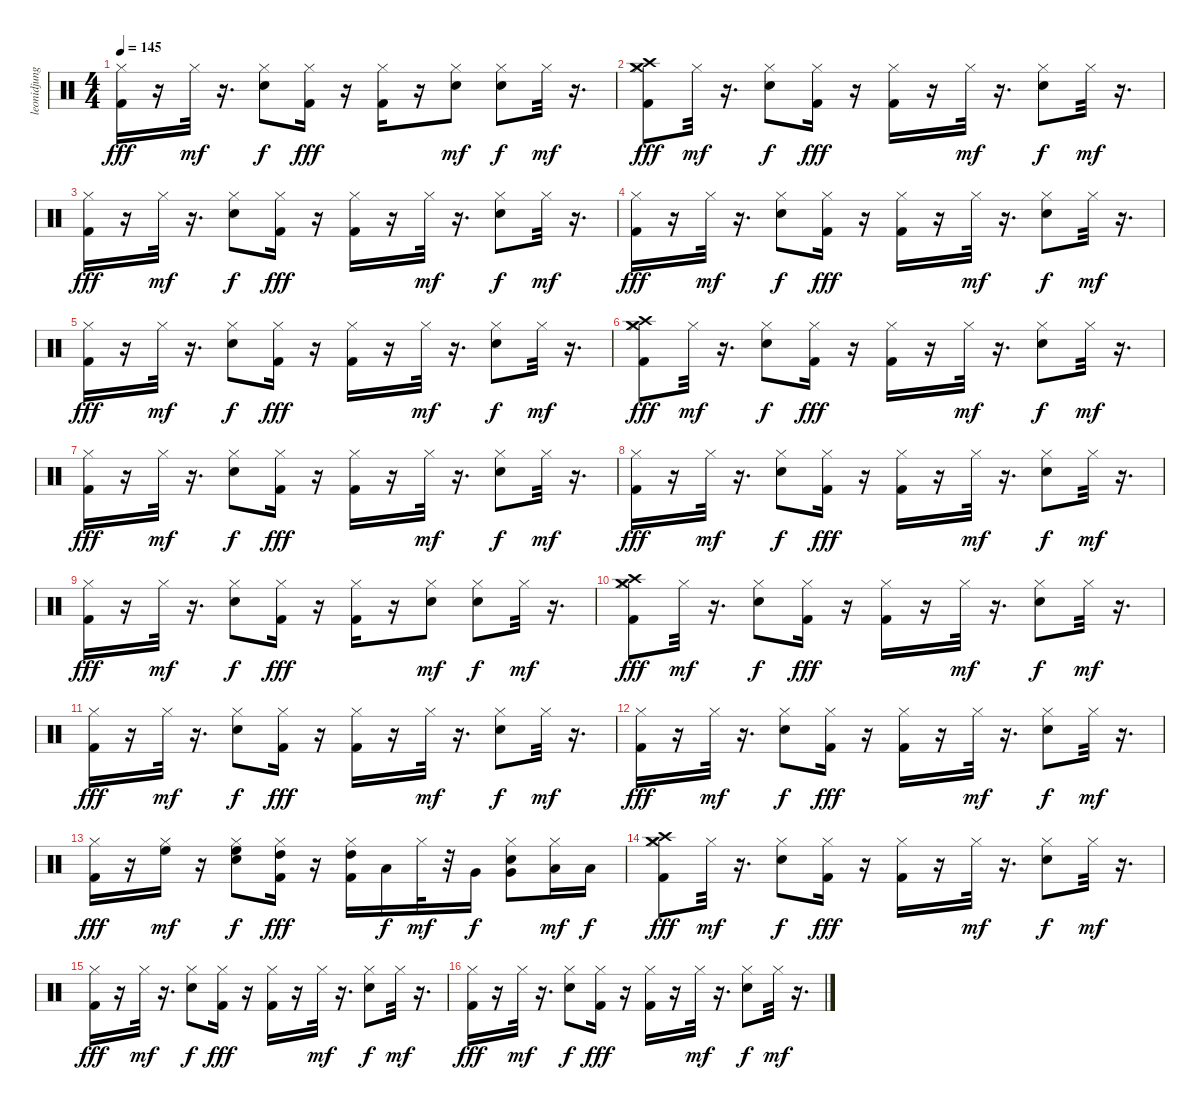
\track ("leonidjung@freenet.de" "leonidjung") {instrument percussion}
\staff {score}
\articulation defaults
\ts (4 4)
\tempo 145
\clef neutral
\ks c
("Hi-Hat (closed)" "Kick (hit) 2").16{dy fff} r.16 "Hi-Hat (closed)".32{dy mf} r.16{d} ("Snare (hit) 2" "Hi-Hat (closed)").8{dy f} ("Hi-Hat (closed)" "Kick (hit) 2").16{dy fff} r.16 ("Hi-Hat (closed)" "Kick (hit) 2").16 r.16 ("Snare (hit) 2" "Hi-Hat (closed)").8{dy mf} ("Snare (hit) 2" "Hi-Hat (closed)").8{dy f} "Hi-Hat (closed)".32{dy mf} r.16{d} |
("Hi-Hat (closed)" "Crash high (hit)" "Crash medium (hit)" "Kick (hit) 2").8{dy fff} "Hi-Hat (closed)".32{dy mf} r.16{d} ("Snare (hit) 2" "Hi-Hat (closed)").8{dy f} ("Hi-Hat (closed)" "Kick (hit) 2").16{dy fff} r.16 ("Hi-Hat (closed)" "Kick (hit) 2").16 r.16 "Hi-Hat (closed)".32{dy mf} r.16{d} ("Snare (hit) 2" "Hi-Hat (closed)").8{dy f} "Hi-Hat (closed)".32{dy mf} r.16{d} |
("Hi-Hat (closed)" "Kick (hit) 2").16{dy fff} r.16 "Hi-Hat (closed)".32{dy mf} r.16{d} ("Snare (hit) 2" "Hi-Hat (closed)").8{dy f} ("Hi-Hat (closed)" "Kick (hit) 2").16{dy fff} r.16 ("Hi-Hat (closed)" "Kick (hit) 2").16 r.16 "Hi-Hat (closed)".32{dy mf} r.16{d} ("Snare (hit) 2" "Hi-Hat (closed)").8{dy f} "Hi-Hat (closed)".32{dy mf} r.16{d} |
("Hi-Hat (closed)" "Kick (hit) 2").16{dy fff} r.16 "Hi-Hat (closed)".32{dy mf} r.16{d} ("Snare (hit) 2" "Hi-Hat (closed)").8{dy f} ("Hi-Hat (closed)" "Kick (hit) 2").16{dy fff} r.16 ("Hi-Hat (closed)" "Kick (hit) 2").16 r.16 "Hi-Hat (closed)".32{dy mf} r.16{d} ("Snare (hit) 2" "Hi-Hat (closed)").8{dy f} "Hi-Hat (closed)".32{dy mf} r.16{d} |
("Hi-Hat (closed)" "Kick (hit) 2").16{dy fff} r.16 "Hi-Hat (closed)".32{dy mf} r.16{d} ("Snare (hit) 2" "Hi-Hat (closed)").8{dy f} ("Hi-Hat (closed)" "Kick (hit) 2").16{dy fff} r.16 ("Hi-Hat (closed)" "Kick (hit) 2").16 r.16 "Hi-Hat (closed)".32{dy mf} r.16{d} ("Snare (hit) 2" "Hi-Hat (closed)").8{dy f} "Hi-Hat (closed)".32{dy mf} r.16{d} |
("Hi-Hat (closed)" "Crash high (hit)" "Crash medium (hit)" "Kick (hit) 2").8{dy fff} "Hi-Hat (closed)".32{dy mf} r.16{d} ("Snare (hit) 2" "Hi-Hat (closed)").8{dy f} ("Hi-Hat (closed)" "Kick (hit) 2").16{dy fff} r.16 ("Hi-Hat (closed)" "Kick (hit) 2").16 r.16 "Hi-Hat (closed)".32{dy mf} r.16{d} ("Snare (hit) 2" "Hi-Hat (closed)").8{dy f} "Hi-Hat (closed)".32{dy mf} r.16{d} |
("Hi-Hat (closed)" "Kick (hit) 2").16{dy fff} r.16 "Hi-Hat (closed)".32{dy mf} r.16{d} ("Snare (hit) 2" "Hi-Hat (closed)").8{dy f} ("Hi-Hat (closed)" "Kick (hit) 2").16{dy fff} r.16 ("Hi-Hat (closed)" "Kick (hit) 2").16 r.16 "Hi-Hat (closed)".32{dy mf} r.16{d} ("Snare (hit) 2" "Hi-Hat (closed)").8{dy f} "Hi-Hat (closed)".32{dy mf} r.16{d} |
("Hi-Hat (closed)" "Kick (hit) 2").16{dy fff} r.16 "Hi-Hat (closed)".32{dy mf} r.16{d} ("Snare (hit) 2" "Hi-Hat (closed)").8{dy f} ("Hi-Hat (closed)" "Kick (hit) 2").16{dy fff} r.16 ("Hi-Hat (closed)" "Kick (hit) 2").16 r.16 "Hi-Hat (closed)".32{dy mf} r.16{d} ("Snare (hit) 2" "Hi-Hat (closed)").8{dy f} "Hi-Hat (closed)".32{dy mf} r.16{d} |
("Hi-Hat (closed)" "Kick (hit) 2").16{dy fff} r.16 "Hi-Hat (closed)".32{dy mf} r.16{d} ("Snare (hit) 2" "Hi-Hat (closed)").8{dy f} ("Hi-Hat (closed)" "Kick (hit) 2").16{dy fff} r.16 ("Hi-Hat (closed)" "Kick (hit) 2").16 r.16 ("Snare (hit) 2" "Hi-Hat (closed)").8{dy mf} ("Snare (hit) 2" "Hi-Hat (closed)").8{dy f} "Hi-Hat (closed)".32{dy mf} r.16{d} |
("Hi-Hat (closed)" "Crash high (hit)" "Crash medium (hit)" "Kick (hit) 2").8{dy fff} "Hi-Hat (closed)".32{dy mf} r.16{d} ("Snare (hit) 2" "Hi-Hat (closed)").8{dy f} ("Hi-Hat (closed)" "Kick (hit) 2").16{dy fff} r.16 ("Hi-Hat (closed)" "Kick (hit) 2").16 r.16 "Hi-Hat (closed)".32{dy mf} r.16{d} ("Snare (hit) 2" "Hi-Hat (closed)").8{dy f} "Hi-Hat (closed)".32{dy mf} r.16{d} |
("Hi-Hat (closed)" "Kick (hit) 2").16{dy fff} r.16 "Hi-Hat (closed)".32{dy mf} r.16{d} ("Snare (hit) 2" "Hi-Hat (closed)").8{dy f} ("Hi-Hat (closed)" "Kick (hit) 2").16{dy fff} r.16 ("Hi-Hat (closed)" "Kick (hit) 2").16 r.16 "Hi-Hat (closed)".32{dy mf} r.16{d} ("Snare (hit) 2" "Hi-Hat (closed)").8{dy f} "Hi-Hat (closed)".32{dy mf} r.16{d} |
("Hi-Hat (closed)" "Kick (hit) 2").16{dy fff} r.16 "Hi-Hat (closed)".32{dy mf} r.16{d} ("Snare (hit) 2" "Hi-Hat (closed)").8{dy f} ("Hi-Hat (closed)" "Kick (hit) 2").16{dy fff} r.16 ("Hi-Hat (closed)" "Kick (hit) 2").16 r.16 "Hi-Hat (closed)".32{dy mf} r.16{d} ("Snare (hit) 2" "Hi-Hat (closed)").8{dy f} "Hi-Hat (closed)".32{dy mf} r.16{d} |
("Hi-Hat (closed)" "Kick (hit) 2").16{dy fff} r.16 ("High Floor Tom (hit)" "Hi-Hat (closed)").16{dy mf} r.16 ("High Floor Tom (hit)" "Snare (hit) 2" "Hi-Hat (closed)").8{dy f} ("High Tom (hit)" "Hi-Hat (closed)" "Kick (hit) 2").16{dy fff} r.16 ("High Tom (hit)" "Hi-Hat (closed)" "Kick (hit) 2").16 "Low Tom (hit)".16{dy f} "Hi-Hat (closed)".32{dy mf} r.32 "Very Low Tom (hit)".16{dy f} ("Very Low Tom (hit)" "Snare (hit) 2" "Hi-Hat (closed)").8 ("Low Floor Tom (hit)" "Hi-Hat (closed)").16{dy mf} "Low Floor Tom (hit)".16{dy f} |
("Hi-Hat (closed)" "Crash high (hit)" "Crash medium (hit)" "Kick (hit) 2").8{dy fff} "Hi-Hat (closed)".32{dy mf} r.16{d} ("Snare (hit) 2" "Hi-Hat (closed)").8{dy f} ("Hi-Hat (closed)" "Kick (hit) 2").16{dy fff} r.16 ("Hi-Hat (closed)" "Kick (hit) 2").16 r.16 "Hi-Hat (closed)".32{dy mf} r.16{d} ("Snare (hit) 2" "Hi-Hat (closed)").8{dy f} "Hi-Hat (closed)".32{dy mf} r.16{d} |
("Hi-Hat (closed)" "Kick (hit) 2").16{dy fff} r.16 "Hi-Hat (closed)".32{dy mf} r.16{d} ("Snare (hit) 2" "Hi-Hat (closed)").8{dy f} ("Hi-Hat (closed)" "Kick (hit) 2").16{dy fff} r.16 ("Hi-Hat (closed)" "Kick (hit) 2").16 r.16 "Hi-Hat (closed)".32{dy mf} r.16{d} ("Snare (hit) 2" "Hi-Hat (closed)").8{dy f} "Hi-Hat (closed)".32{dy mf} r.16{d} |
("Hi-Hat (closed)" "Kick (hit) 2").16{dy fff} r.16 "Hi-Hat (closed)".32{dy mf} r.16{d} ("Snare (hit) 2" "Hi-Hat (closed)").8{dy f} ("Hi-Hat (closed)" "Kick (hit) 2").16{dy fff} r.16 ("Hi-Hat (closed)" "Kick (hit) 2").16 r.16 "Hi-Hat (closed)".32{dy mf} r.16{d} ("Snare (hit) 2" "Hi-Hat (closed)").8{dy f} "Hi-Hat (closed)".32{dy mf} r.16{d}
